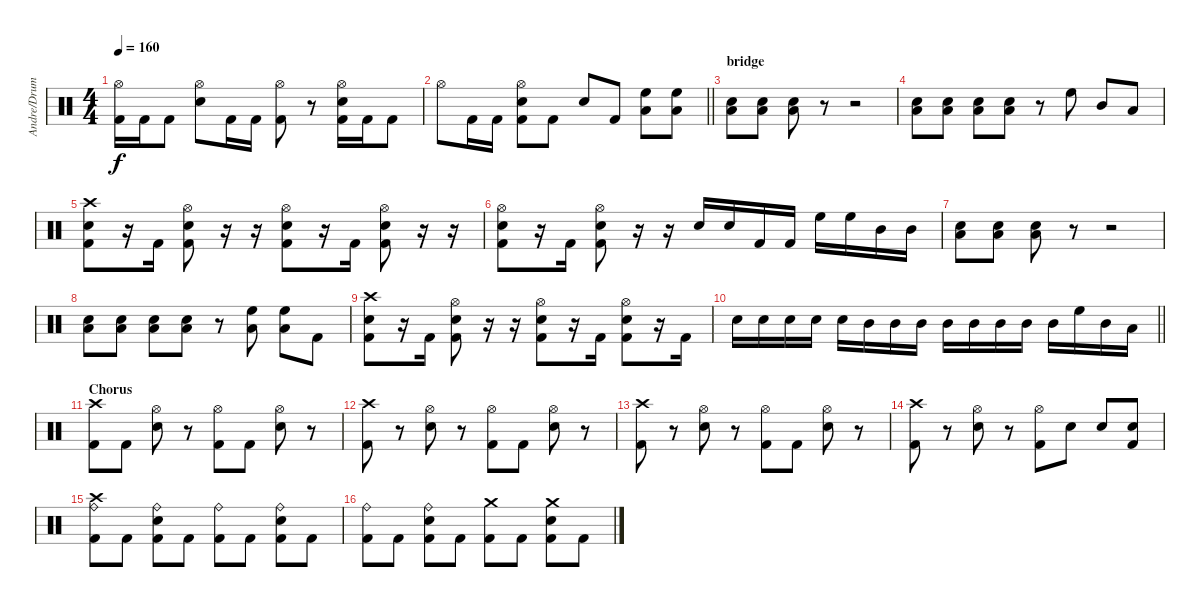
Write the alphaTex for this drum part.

\track ("Andre/Drums" "Andre/Drum") {instrument percussion}
\staff {score}
\articulation defaults
\ts (4 4)
\tempo 160
\clef neutral
\ks c
("Hi-Hat (open)" "Kick (hit) 2").16{dy f} "Kick (hit) 2".16 "Kick (hit) 2".8 ("Hi-Hat (open)" "Snare (hit) 2").8 "Kick (hit) 2".16 "Kick (hit) 2".16 ("Hi-Hat (open)" "Kick (hit) 2").8 r.8 ("Hi-Hat (open)" "Snare (hit) 2" "Kick (hit) 2").16 "Kick (hit) 2".16 "Kick (hit) 2".8 |
\barLineRight lightlight "Hi-Hat (open)".8 "Kick (hit) 2".16 "Kick (hit) 2".16
("Hi-Hat (open)" "Snare (hit) 2" "Kick (hit) 2").8 "Kick (hit) 2".8 "Snare (hit) 2".8 "Kick (hit) 2".8 ("High Floor Tom (hit)" "Low Tom (hit)").8 ("High Floor Tom (hit)" "Low Tom (hit)").8 |
\section ("" "bridge")
("Snare (hit) 2" "Low Tom (hit)").8 ("Snare (hit) 2" "Low Tom (hit)").8 ("Snare (hit) 2" "Low Tom (hit)").8 r.8 r.2 |
("Snare (hit) 2" "Low Tom (hit)").8 ("Snare (hit) 2" "Low Tom (hit)").8 ("Snare (hit) 2" "Low Tom (hit)").8 ("Snare (hit) 2" "Low Tom (hit)").8 r.8 "High Floor Tom (hit)".8 "Mid Tom (hit)".8 "Low Tom (hit)".8 |
("Crash high (hit)" "Snare (hit) 2" "Kick (hit) 2").8 r.16 "Kick (hit) 2".16 ("Hi-Hat (open)" "Snare (hit) 2" "Kick (hit) 2").8 r.16 r.16 ("Hi-Hat (open)" "Snare (hit) 2" "Kick (hit) 2").8 r.16 "Kick (hit) 2".16 ("Hi-Hat (open)" "Snare (hit) 2" "Kick (hit) 2").8 r.16 r.16 |
("Hi-Hat (open)" "Snare (hit) 2" "Kick (hit) 2").8 r.16 "Kick (hit) 2".16 ("Hi-Hat (open)" "Snare (hit) 2" "Kick (hit) 2").8 r.16 r.16 "Snare (hit) 2".16 "Snare (hit) 2".16 "Kick (hit) 2".16 "Kick (hit) 2".16 "High Floor Tom (hit)".16 "High Floor Tom (hit)".16 "Mid Tom (hit)".16 "Mid Tom (hit)".16 |
("Snare (hit) 2" "Low Tom (hit)").8 ("Snare (hit) 2" "Low Tom (hit)").8 ("Snare (hit) 2" "Low Tom (hit)").8 r.8 r.2 |
("Snare (hit) 2" "Low Tom (hit)").8 ("Snare (hit) 2" "Low Tom (hit)").8 ("Snare (hit) 2" "Low Tom (hit)").8 ("Snare (hit) 2" "Low Tom (hit)").8 r.8 ("High Floor Tom (hit)" "Low Tom (hit)").8 ("High Floor Tom (hit)" "Low Tom (hit)").8 "Kick (hit) 2".8 |
("Crash high (hit)" "Snare (hit) 2" "Kick (hit) 2").8 r.16 "Kick (hit) 2".16 ("Hi-Hat (open)" "Snare (hit) 2" "Kick (hit) 2").8 r.16 r.16 ("Hi-Hat (open)" "Snare (hit) 2" "Kick (hit) 2").8 r.16 "Kick (hit) 2".16 ("Hi-Hat (open)" "Snare (hit) 2" "Kick (hit) 2").8 r.16 "Kick (hit) 2".16 |
\barLineRight lightlight "Snare (hit) 2".16 "Snare (hit) 2".16 "Snare (hit) 2".16 "Snare (hit) 2".16 "Snare (hit) 2".16 "Mid Tom (hit)".16 "Mid Tom (hit)".16 "Mid Tom (hit)".16 "Mid Tom (hit)".16 "Mid Tom (hit)".16 "Mid Tom (hit)".16 "Mid Tom (hit)".16 "Mid Tom (hit)".16 "High Floor Tom (hit)".16 "Mid Tom (hit)".16 "Low Tom (hit)".16
|
\section ("" "Chorus")
("Crash high (hit)" "Kick (hit) 2").8 "Kick (hit) 2".8 ("Hi-Hat (open)" "Snare (hit) 2").8 r.8 ("Hi-Hat (open)" "Kick (hit) 2").8 "Kick (hit) 2".8 ("Hi-Hat (open)" "Snare (hit) 2").8 r.8 |
("Crash high (hit)" "Kick (hit) 2").8 r.8 ("Hi-Hat (open)" "Snare (hit) 2").8 r.8 ("Hi-Hat (open)" "Kick (hit) 2").8 "Kick (hit) 2".8 ("Hi-Hat (open)" "Snare (hit) 2").8 r.8 |
("Crash high (hit)" "Kick (hit) 2").8 r.8 ("Hi-Hat (open)" "Snare (hit) 2").8 r.8 ("Hi-Hat (open)" "Kick (hit) 2").8 "Kick (hit) 2".8 ("Hi-Hat (open)" "Snare (hit) 2").8 r.8 |
("Crash high (hit)" "Kick (hit) 2").8 r.8 ("Hi-Hat (open)" "Snare (hit) 2").8 r.8 ("Hi-Hat (open)" "Kick (hit) 2").8 "Snare (hit) 2".8 "Snare (hit) 2".8 ("Snare (hit) 2" "Kick (hit) 2").8 |
("Crash high (hit)" "Ride (bell)" "Kick (hit) 2").8 "Kick (hit) 2".8 ("Ride (bell)" "Snare (hit) 2" "Kick (hit) 2").8 "Kick (hit) 2".8 ("Ride (bell)" "Kick (hit) 2").8 "Kick (hit) 2".8 ("Ride (bell)" "Snare (hit) 2" "Kick (hit) 2").8 "Kick (hit) 2".8 |
("Ride (bell)" "Kick (hit) 2").8 "Kick (hit) 2".8 ("Ride (bell)" "Snare (hit) 2" "Kick (hit) 2").8 "Kick (hit) 2".8 ("Crash medium (hit)" "Kick (hit) 2").8 "Kick (hit) 2".8 ("Crash medium (hit)" "Snare (hit) 2" "Kick (hit) 2").8 "Kick (hit) 2".8
